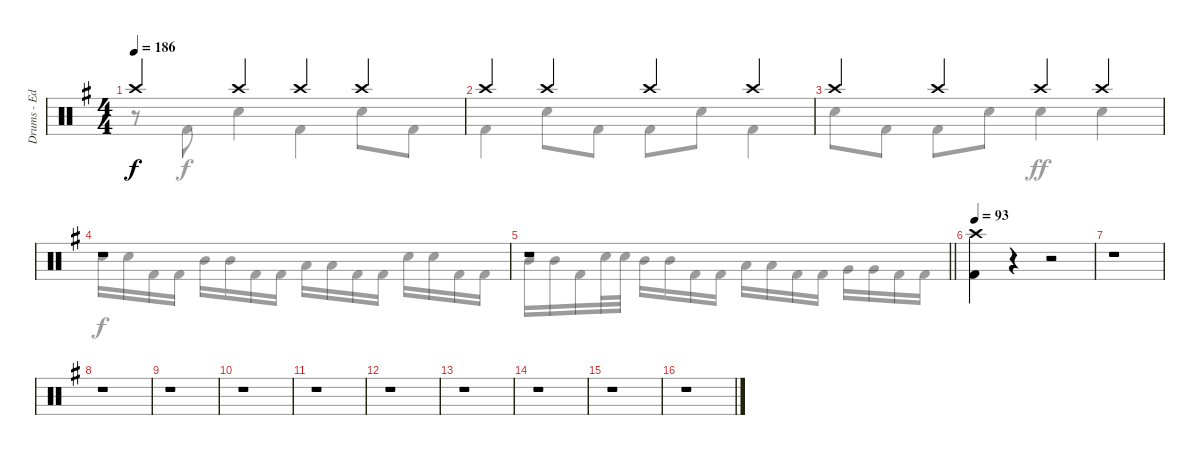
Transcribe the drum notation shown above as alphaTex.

\track ("Drums - Ed Warby" "Drums - Ed") {instrument percussion}
\staff {score}
\articulation defaults
\voice
\ts (4 4)
\tempo 186
\clef neutral
\ks eminor "Crash high (hit)".4{dy f} "Crash high (hit)".4 "Crash high (hit)".4 "Crash high (hit)".4
|
"Crash high (hit)".4 "Crash high (hit)".4 "Crash high (hit)".4 "Crash high (hit)".4 |
"Crash high (hit)".4 "Crash high (hit)".4 "Crash high (hit)".4 "Crash high (hit)".4 |
r.1 |
\barLineRight lightlight
r.1 |
\tempo 93
("Crash high (hit)" "Kick (hit) 2").4 r.4 r.2 |
r.1 |
r.1 |
r.1 |
r.1 |
r.1 |
r.1 |
r.1 |
r.1 |
r.1 |
r.1
\voice
\clef neutral
\ottava regular
\simile none
\ks eminor
r.8{dy f} "Kick (hit) 2".8 "Snare (hit) 2".4 "Kick (hit) 2".4 "Snare (hit) 2".8 "Kick (hit) 2".8 |
"Kick (hit) 2".4 "Snare (hit) 2".8 "Kick (hit) 2".8 "Kick (hit) 2".8 "Snare (hit) 2".8 "Kick (hit) 2".4 |
"Snare (hit) 2".8 "Kick (hit) 2".8 "Kick (hit) 2".8 "Snare (hit) 2".8 "Snare (hit) 2".4{dy ff} "Snare (hit) 2".4 |
"Snare (hit) 2".16{dy f} "Snare (hit) 2".16 "Kick (hit) 2".16 "Kick (hit) 2".16 "Mid Tom (hit)".16 "Mid Tom (hit)".16 "Kick (hit) 2".16 "Kick (hit) 2".16 "Low Tom (hit)".16 "Low Tom (hit)".16 "Kick (hit) 2".16 "Kick (hit) 2".16 "Snare (hit) 2".16 "Snare (hit) 2".16 "Kick (hit) 2".16 "Kick (hit) 2".16 |
\barLineRight lightlight "Mid Tom (hit)".16 "Mid Tom (hit)".16 "Kick (hit) 2".16 "Snare (hit) 2".32 "Snare (hit) 2".32 "Mid Tom (hit)".16 "Mid Tom (hit)".16 "Kick (hit) 2".16 "Kick (hit) 2".16 "Low Tom (hit)".16 "Low Tom (hit)".16 "Kick (hit) 2".16 "Kick (hit) 2".16 "Very Low Tom (hit)".16 "Very Low Tom (hit)".16 "Kick (hit) 2".16 "Kick (hit) 2".16
|
|
|
|
|
|
|
|
|
|
|
